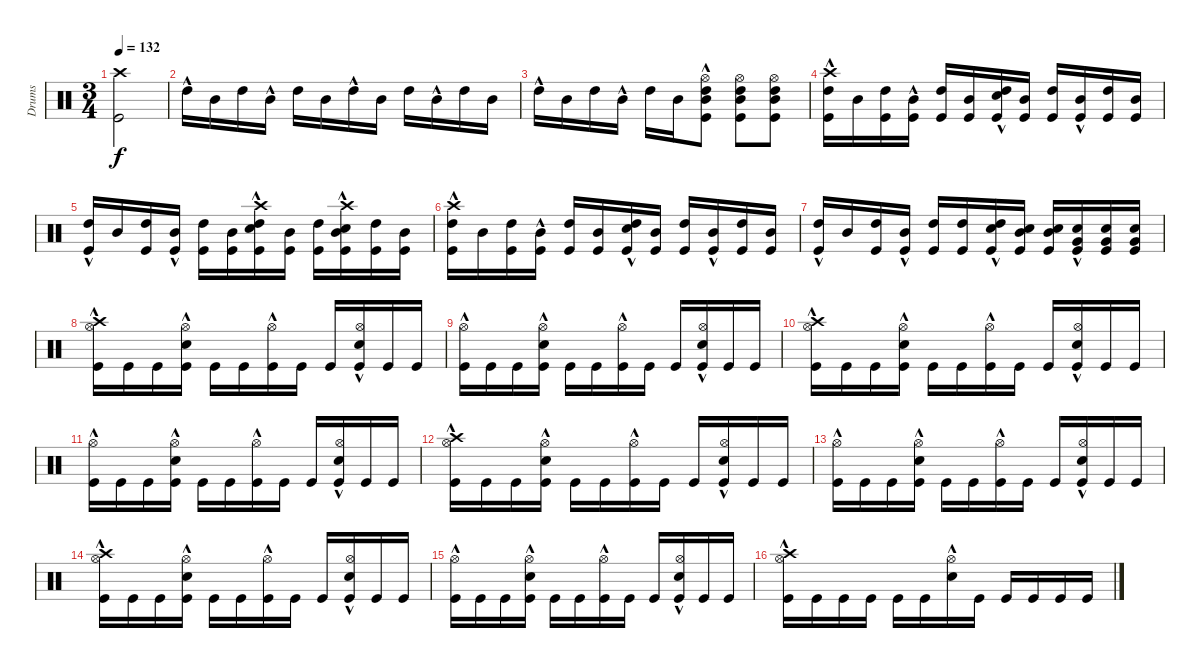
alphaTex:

\track ("Drums" "Drums") {instrument percussion}
\staff {score}
\articulation defaults
\ts (3 4)
\tempo 132
\clef neutral
\ks c
("Crash high (hit)" "Kick (hit)").2{dy f} |
"High Tom (hit)"{hac}.16 "Mid Tom (hit)".16 "High Tom (hit)".16 "Mid Tom (hit)"{hac}.16 "High Tom (hit)".16 "Mid Tom (hit)".16 "High Tom (hit)"{hac}.16 "Mid Tom (hit)".16 "High Tom (hit)".16 "Mid Tom (hit)"{hac}.16 "High Tom (hit)".16 "Mid Tom (hit)".16 |
"High Tom (hit)"{hac}.16 "Mid Tom (hit)".16 "High Tom (hit)".16 "Mid Tom (hit)"{hac}.16 "High Tom (hit)".16 "Mid Tom (hit)".16 ("High Tom (hit)"{hac} "Mid Tom (hit)" "Kick (hit)" "Hi-Hat (open)").8 ("High Tom (hit)" "Mid Tom (hit)" "Kick (hit)" "Hi-Hat (open)").8 ("High Tom (hit)" "Mid Tom (hit)" "Kick (hit)" "Hi-Hat (open)").8 |
("High Tom (hit)"{hac} "Crash high (hit)" "Kick (hit)").16 "Mid Tom (hit)".16 ("High Tom (hit)" "Kick (hit)").16 ("Mid Tom (hit)"{hac} "Kick (hit)").16 ("High Tom (hit)" "Kick (hit)").16 ("Mid Tom (hit)" "Kick (hit)").16 ("High Tom (hit)"{hac} "Snare (hit) 2" "Kick (hit)").16 ("Mid Tom (hit)" "Kick (hit)").16 ("High Tom (hit)" "Kick (hit)").16 ("Mid Tom (hit)"{hac} "Kick (hit)").16 ("High Tom (hit)" "Kick (hit)").16 ("Mid Tom (hit)" "Kick (hit)").16 |
("High Tom (hit)"{hac} "Kick (hit)").16 "Mid Tom (hit)".16 ("High Tom (hit)" "Kick (hit)").16 ("Mid Tom (hit)"{hac} "Kick (hit)").16 ("High Tom (hit)" "Kick (hit)").16 ("Mid Tom (hit)" "Kick (hit)").16 ("High Tom (hit)"{hac} "Crash high (hit)" "Kick (hit)" "Snare (hit) 2").16 ("Mid Tom (hit)" "Kick (hit)").16 ("High Tom (hit)" "Kick (hit)").16 ("Mid Tom (hit)"{hac} "Crash high (hit)" "Kick (hit)" "Snare (hit) 2").16 ("High Tom (hit)" "Kick (hit)").16 ("Mid Tom (hit)" "Kick (hit)").16 |
("High Tom (hit)"{hac} "Crash high (hit)" "Kick (hit)").16 "Mid Tom (hit)".16 ("High Tom (hit)" "Kick (hit)").16 ("Mid Tom (hit)"{hac} "Kick (hit)").16 ("High Tom (hit)" "Kick (hit)").16 ("Mid Tom (hit)" "Kick (hit)").16 ("High Tom (hit)"{hac} "Snare (hit) 2" "Kick (hit)").16 ("Mid Tom (hit)" "Kick (hit)").16 ("High Tom (hit)" "Kick (hit)").16 ("Mid Tom (hit)"{hac} "Kick (hit)").16 ("High Tom (hit)" "Kick (hit)").16 ("Mid Tom (hit)" "Kick (hit)").16 |
("High Tom (hit)"{hac} "Kick (hit)").16 "Mid Tom (hit)".16 ("High Tom (hit)" "Kick (hit)").16 ("Mid Tom (hit)"{hac} "Kick (hit)").16 ("High Tom (hit)" "Kick (hit)").16 ("High Tom (hit)" "Kick (hit)").16 ("High Tom (hit)"{hac} "Snare (hit) 2" "Kick (hit)").16 ("Mid Tom (hit)" "Snare (hit) 2" "Kick (hit)").16 ("Mid Tom (hit)" "Snare (hit) 2" "Kick (hit)").16 ("Very Low Tom (hit)"{hac} "Snare (hit) 2" "Kick (hit)").16 ("Very Low Tom (hit)" "Snare (hit) 2" "Kick (hit)").16 ("Very Low Tom (hit)" "Snare (hit) 2" "Kick (hit)").16 |
("Crash high (hit)" "Hi-Hat (open)"{hac} "Kick (hit)").16 "Kick (hit)".16 "Kick (hit)".16 ("Hi-Hat (open)"{hac} "Kick (hit)" "Electric Snare (hit)").16 "Kick (hit)".16 "Kick (hit)".16 ("Hi-Hat (open)"{hac} "Kick (hit)").16 "Kick (hit)".16 "Kick (hit)".16 ("Hi-Hat (open)"{hac} "Kick (hit)" "Electric Snare (hit)").16 "Kick (hit)".16 "Kick (hit)".16 |
("Hi-Hat (open)"{hac} "Kick (hit)").16 "Kick (hit)".16 "Kick (hit)".16 ("Hi-Hat (open)"{hac} "Kick (hit)" "Electric Snare (hit)").16 "Kick (hit)".16 "Kick (hit)".16 ("Hi-Hat (open)"{hac} "Kick (hit)").16 "Kick (hit)".16 "Kick (hit)".16 ("Hi-Hat (open)"{hac} "Kick (hit)" "Electric Snare (hit)").16 "Kick (hit)".16 "Kick (hit)".16 |
("Crash high (hit)" "Hi-Hat (open)"{hac} "Kick (hit)").16 "Kick (hit)".16 "Kick (hit)".16 ("Hi-Hat (open)"{hac} "Kick (hit)" "Electric Snare (hit)").16 "Kick (hit)".16 "Kick (hit)".16 ("Hi-Hat (open)"{hac} "Kick (hit)").16 "Kick (hit)".16 "Kick (hit)".16 ("Hi-Hat (open)"{hac} "Kick (hit)" "Electric Snare (hit)").16 "Kick (hit)".16 "Kick (hit)".16 |
("Hi-Hat (open)"{hac} "Kick (hit)").16 "Kick (hit)".16 "Kick (hit)".16 ("Hi-Hat (open)"{hac} "Kick (hit)" "Electric Snare (hit)").16 "Kick (hit)".16 "Kick (hit)".16 ("Hi-Hat (open)"{hac} "Kick (hit)").16 "Kick (hit)".16 "Kick (hit)".16 ("Hi-Hat (open)"{hac} "Kick (hit)" "Electric Snare (hit)").16 "Kick (hit)".16 "Kick (hit)".16 |
("Crash high (hit)" "Hi-Hat (open)"{hac} "Kick (hit)").16 "Kick (hit)".16 "Kick (hit)".16 ("Hi-Hat (open)"{hac} "Kick (hit)" "Electric Snare (hit)").16 "Kick (hit)".16 "Kick (hit)".16 ("Hi-Hat (open)"{hac} "Kick (hit)").16 "Kick (hit)".16 "Kick (hit)".16 ("Hi-Hat (open)"{hac} "Kick (hit)" "Electric Snare (hit)").16 "Kick (hit)".16 "Kick (hit)".16 |
("Hi-Hat (open)"{hac} "Kick (hit)").16 "Kick (hit)".16 "Kick (hit)".16 ("Hi-Hat (open)"{hac} "Kick (hit)" "Electric Snare (hit)").16 "Kick (hit)".16 "Kick (hit)".16 ("Hi-Hat (open)"{hac} "Kick (hit)").16 "Kick (hit)".16 "Kick (hit)".16 ("Hi-Hat (open)"{hac} "Kick (hit)" "Electric Snare (hit)").16 "Kick (hit)".16 "Kick (hit)".16 |
("Crash high (hit)" "Hi-Hat (open)"{hac} "Kick (hit)").16 "Kick (hit)".16 "Kick (hit)".16 ("Hi-Hat (open)"{hac} "Kick (hit)" "Electric Snare (hit)").16 "Kick (hit)".16 "Kick (hit)".16 ("Hi-Hat (open)"{hac} "Kick (hit)").16 "Kick (hit)".16 "Kick (hit)".16 ("Hi-Hat (open)"{hac} "Kick (hit)" "Electric Snare (hit)").16 "Kick (hit)".16 "Kick (hit)".16 |
("Hi-Hat (open)"{hac} "Kick (hit)").16 "Kick (hit)".16 "Kick (hit)".16 ("Hi-Hat (open)"{hac} "Kick (hit)" "Electric Snare (hit)").16 "Kick (hit)".16 "Kick (hit)".16 ("Hi-Hat (open)"{hac} "Kick (hit)").16 "Kick (hit)".16 "Kick (hit)".16 ("Hi-Hat (open)"{hac} "Kick (hit)" "Electric Snare (hit)").16 "Kick (hit)".16 "Kick (hit)".16 |
("Crash high (hit)" "Hi-Hat (open)"{hac} "Kick (hit)").16 "Kick (hit)".16 "Kick (hit)".16 "Kick (hit)".16 "Kick (hit)".16 "Kick (hit)".16 ("Hi-Hat (open)"{hac} "Electric Snare (hit)").16 "Kick (hit)".16 "Kick (hit)".16 "Kick (hit)".16 "Kick (hit)".16 "Kick (hit)".16
